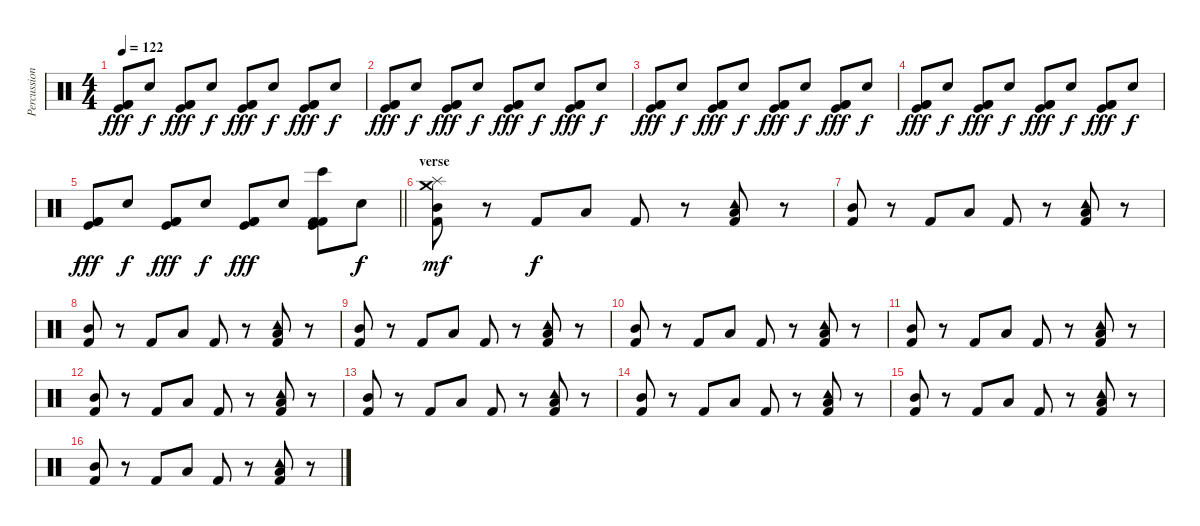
\track ("Percussion" "Percussion") {instrument percussion}
\staff {score}
\articulation defaults
\ts (4 4)
\tempo 122
\clef neutral
\ks c
("Kick (hit) 2" "Kick (hit)" "Kick (hit) 2").8{dy fff} "Hand Clap (hit)".8{dy f} ("Kick (hit) 2" "Kick (hit)" "Kick (hit) 2").8{dy fff} "Hand Clap (hit)".8{dy f} ("Kick (hit) 2" "Kick (hit)" "Kick (hit) 2").8{dy fff} "Hand Clap (hit)".8{dy f} ("Kick (hit) 2" "Kick (hit)" "Kick (hit) 2").8{dy fff} "Hand Clap (hit)".8{dy f} |
("Kick (hit) 2" "Kick (hit)" "Kick (hit) 2").8{dy fff} "Hand Clap (hit)".8{dy f} ("Kick (hit) 2" "Kick (hit)" "Kick (hit) 2").8{dy fff} "Hand Clap (hit)".8{dy f} ("Kick (hit) 2" "Kick (hit)" "Kick (hit) 2").8{dy fff} "Hand Clap (hit)".8{dy f} ("Kick (hit) 2" "Kick (hit)" "Kick (hit) 2").8{dy fff} "Hand Clap (hit)".8{dy f} |
("Kick (hit) 2" "Kick (hit)" "Kick (hit) 2").8{dy fff} "Hand Clap (hit)".8{dy f} ("Kick (hit) 2" "Kick (hit)" "Kick (hit) 2").8{dy fff} "Hand Clap (hit)".8{dy f} ("Kick (hit) 2" "Kick (hit)" "Kick (hit) 2").8{dy fff} "Hand Clap (hit)".8{dy f} ("Kick (hit) 2" "Kick (hit)" "Kick (hit) 2").8{dy fff} "Hand Clap (hit)".8{dy f} |
("Kick (hit) 2" "Kick (hit)" "Kick (hit) 2").8{dy fff} "Hand Clap (hit)".8{dy f} ("Kick (hit) 2" "Kick (hit)" "Kick (hit) 2").8{dy fff} "Hand Clap (hit)".8{dy f} ("Kick (hit) 2" "Kick (hit)" "Kick (hit) 2").8{dy fff} "Hand Clap (hit)".8{dy f} ("Kick (hit) 2" "Kick (hit)" "Kick (hit) 2").8{dy fff} "Hand Clap (hit)".8{dy f} |
\barLineRight lightlight
("Kick (hit) 2" "Kick (hit)" "Kick (hit) 2").8{dy fff} "Hand Clap (hit)".8{dy f} ("Kick (hit) 2" "Kick (hit)" "Kick (hit) 2").8{dy fff} "Hand Clap (hit)".8{dy f} ("Kick (hit) 2" "Kick (hit)" "Kick (hit) 2").8{dy fff} "Hand Clap (hit)".8 ("Bongo High (hit)" "Kick (hit) 2" "Kick (hit)" "Kick (hit) 2").8 "Hand Clap (hit)".8{dy f} |
\section ("" "verse")
("Mid Tom (hit)" "Crash medium (hit)" "Splash (hit)" "Kick (hit) 2").8{dy mf} r.8 "Kick (hit) 2".8{dy f} "Low Tom (hit)".8 "Kick (hit) 2".8 r.8 ("Tambourine (hit)" "Low Floor Tom (hit)" "Kick (hit) 2").8 r.8 |
("Mid Tom (hit)" "Kick (hit) 2").8 r.8 "Kick (hit) 2".8 "Low Tom (hit)".8 "Kick (hit) 2".8 r.8 ("Tambourine (hit)" "Low Floor Tom (hit)" "Kick (hit) 2").8 r.8 |
("Mid Tom (hit)" "Kick (hit) 2").8 r.8 "Kick (hit) 2".8 "Low Tom (hit)".8 "Kick (hit) 2".8 r.8 ("Tambourine (hit)" "Low Floor Tom (hit)" "Kick (hit) 2").8 r.8 |
("Mid Tom (hit)" "Kick (hit) 2").8 r.8 "Kick (hit) 2".8 "Low Tom (hit)".8 "Kick (hit) 2".8 r.8 ("Tambourine (hit)" "Low Floor Tom (hit)" "Kick (hit) 2").8 r.8 |
("Mid Tom (hit)" "Kick (hit) 2").8 r.8 "Kick (hit) 2".8 "Low Tom (hit)".8 "Kick (hit) 2".8 r.8 ("Tambourine (hit)" "Low Floor Tom (hit)" "Kick (hit) 2").8 r.8 |
("Mid Tom (hit)" "Kick (hit) 2").8 r.8 "Kick (hit) 2".8 "Low Tom (hit)".8 "Kick (hit) 2".8 r.8 ("Tambourine (hit)" "Low Floor Tom (hit)" "Kick (hit) 2").8 r.8 |
("Mid Tom (hit)" "Kick (hit) 2").8 r.8 "Kick (hit) 2".8 "Low Tom (hit)".8 "Kick (hit) 2".8 r.8 ("Tambourine (hit)" "Low Floor Tom (hit)" "Kick (hit) 2").8 r.8 |
("Mid Tom (hit)" "Kick (hit) 2").8 r.8 "Kick (hit) 2".8 "Low Tom (hit)".8 "Kick (hit) 2".8 r.8 ("Tambourine (hit)" "Low Floor Tom (hit)" "Kick (hit) 2").8 r.8 |
("Mid Tom (hit)" "Kick (hit) 2").8 r.8 "Kick (hit) 2".8 "Low Tom (hit)".8 "Kick (hit) 2".8 r.8 ("Tambourine (hit)" "Low Floor Tom (hit)" "Kick (hit) 2").8 r.8 |
("Mid Tom (hit)" "Kick (hit) 2").8 r.8 "Kick (hit) 2".8 "Low Tom (hit)".8 "Kick (hit) 2".8 r.8 ("Tambourine (hit)" "Low Floor Tom (hit)" "Kick (hit) 2").8 r.8 |
("Mid Tom (hit)" "Kick (hit) 2").8 r.8 "Kick (hit) 2".8 "Low Tom (hit)".8 "Kick (hit) 2".8 r.8 ("Tambourine (hit)" "Low Floor Tom (hit)" "Kick (hit) 2").8 r.8
